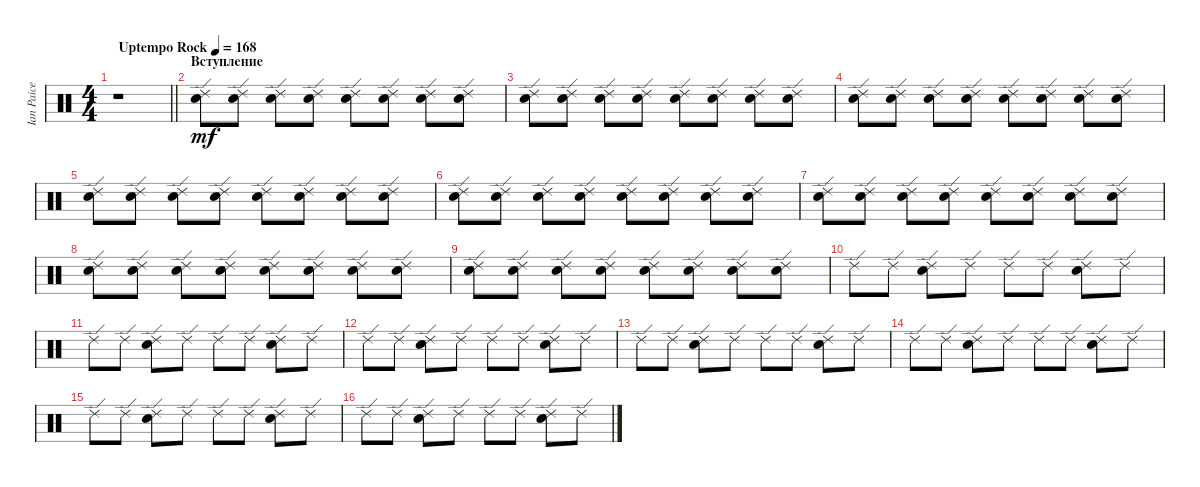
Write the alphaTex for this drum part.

\track ("Ian Paice" "Ian Paice") {instrument percussion}
\staff {score}
\articulation defaults
\ts (4 4)
\tempo (168 "Uptempo Rock")
\clef neutral
\barLineRight lightlight
\ks c
r.1{dy mf} |
\section ("" "Вступление")
("Ride (edge) 2" "Electric Snare (hit)").8 ("Ride (edge) 2" "Electric Snare (hit)").8 ("Ride (edge) 2" "Electric Snare (hit)").8 ("Ride (edge) 2" "Electric Snare (hit)").8 ("Ride (edge) 2" "Electric Snare (hit)").8 ("Ride (edge) 2" "Electric Snare (hit)").8 ("Ride (edge) 2" "Electric Snare (hit)").8 ("Ride (edge) 2" "Electric Snare (hit)").8 |
("Ride (edge) 2" "Electric Snare (hit)").8 ("Ride (edge) 2" "Electric Snare (hit)").8 ("Ride (edge) 2" "Electric Snare (hit)").8 ("Ride (edge) 2" "Electric Snare (hit)").8 ("Ride (edge) 2" "Electric Snare (hit)").8 ("Ride (edge) 2" "Electric Snare (hit)").8 ("Ride (edge) 2" "Electric Snare (hit)").8 ("Ride (edge) 2" "Electric Snare (hit)").8 |
("Ride (edge) 2" "Electric Snare (hit)").8 ("Ride (edge) 2" "Electric Snare (hit)").8 ("Ride (edge) 2" "Electric Snare (hit)").8 ("Ride (edge) 2" "Electric Snare (hit)").8 ("Ride (edge) 2" "Electric Snare (hit)").8 ("Ride (edge) 2" "Electric Snare (hit)").8 ("Ride (edge) 2" "Electric Snare (hit)").8 ("Ride (edge) 2" "Electric Snare (hit)").8 |
("Ride (edge) 2" "Electric Snare (hit)").8 ("Ride (edge) 2" "Electric Snare (hit)").8 ("Ride (edge) 2" "Electric Snare (hit)").8 ("Ride (edge) 2" "Electric Snare (hit)").8 ("Ride (edge) 2" "Electric Snare (hit)").8 ("Ride (edge) 2" "Electric Snare (hit)").8 ("Ride (edge) 2" "Electric Snare (hit)").8 ("Ride (edge) 2" "Electric Snare (hit)").8 |
("Ride (edge) 2" "Electric Snare (hit)").8 ("Ride (edge) 2" "Electric Snare (hit)").8 ("Ride (edge) 2" "Electric Snare (hit)").8 ("Ride (edge) 2" "Electric Snare (hit)").8 ("Ride (edge) 2" "Electric Snare (hit)").8 ("Ride (edge) 2" "Electric Snare (hit)").8 ("Ride (edge) 2" "Electric Snare (hit)").8 ("Ride (edge) 2" "Electric Snare (hit)").8 |
("Ride (edge) 2" "Electric Snare (hit)").8 ("Ride (edge) 2" "Electric Snare (hit)").8 ("Ride (edge) 2" "Electric Snare (hit)").8 ("Ride (edge) 2" "Electric Snare (hit)").8 ("Ride (edge) 2" "Electric Snare (hit)").8 ("Ride (edge) 2" "Electric Snare (hit)").8 ("Ride (edge) 2" "Electric Snare (hit)").8 ("Ride (edge) 2" "Electric Snare (hit)").8 |
("Ride (edge) 2" "Electric Snare (hit)").8 ("Ride (edge) 2" "Electric Snare (hit)").8 ("Ride (edge) 2" "Electric Snare (hit)").8 ("Ride (edge) 2" "Electric Snare (hit)").8 ("Ride (edge) 2" "Electric Snare (hit)").8 ("Ride (edge) 2" "Electric Snare (hit)").8 ("Ride (edge) 2" "Electric Snare (hit)").8 ("Ride (edge) 2" "Electric Snare (hit)").8 |
("Ride (edge) 2" "Electric Snare (hit)").8 ("Ride (edge) 2" "Electric Snare (hit)").8 ("Ride (edge) 2" "Electric Snare (hit)").8 ("Ride (edge) 2" "Electric Snare (hit)").8 ("Ride (edge) 2" "Electric Snare (hit)").8 ("Ride (edge) 2" "Electric Snare (hit)").8 ("Ride (edge) 2" "Electric Snare (hit)").8 ("Ride (edge) 2" "Electric Snare (hit)").8 |
"Ride (edge) 2".8 "Ride (edge) 2".8 ("Ride (edge) 2" "Electric Snare (hit)").8 "Ride (edge) 2".8 "Ride (edge) 2".8 "Ride (edge) 2".8 ("Ride (edge) 2" "Electric Snare (hit)").8 "Ride (edge) 2".8 |
"Ride (edge) 2".8 "Ride (edge) 2".8 ("Ride (edge) 2" "Electric Snare (hit)").8 "Ride (edge) 2".8 "Ride (edge) 2".8 "Ride (edge) 2".8 ("Ride (edge) 2" "Electric Snare (hit)").8 "Ride (edge) 2".8 |
"Ride (edge) 2".8 "Ride (edge) 2".8 ("Ride (edge) 2" "Electric Snare (hit)").8 "Ride (edge) 2".8 "Ride (edge) 2".8 "Ride (edge) 2".8 ("Ride (edge) 2" "Electric Snare (hit)").8 "Ride (edge) 2".8 |
"Ride (edge) 2".8 "Ride (edge) 2".8 ("Ride (edge) 2" "Electric Snare (hit)").8 "Ride (edge) 2".8 "Ride (edge) 2".8 "Ride (edge) 2".8 ("Ride (edge) 2" "Electric Snare (hit)").8 "Ride (edge) 2".8 |
"Ride (edge) 2".8 "Ride (edge) 2".8 ("Ride (edge) 2" "Electric Snare (hit)").8 "Ride (edge) 2".8 "Ride (edge) 2".8 "Ride (edge) 2".8 ("Ride (edge) 2" "Electric Snare (hit)").8 "Ride (edge) 2".8 |
"Ride (edge) 2".8 "Ride (edge) 2".8 ("Ride (edge) 2" "Electric Snare (hit)").8 "Ride (edge) 2".8 "Ride (edge) 2".8 "Ride (edge) 2".8 ("Ride (edge) 2" "Electric Snare (hit)").8 "Ride (edge) 2".8 |
"Ride (edge) 2".8 "Ride (edge) 2".8 ("Ride (edge) 2" "Electric Snare (hit)").8 "Ride (edge) 2".8 "Ride (edge) 2".8 "Ride (edge) 2".8 ("Ride (edge) 2" "Electric Snare (hit)").8 "Ride (edge) 2".8
